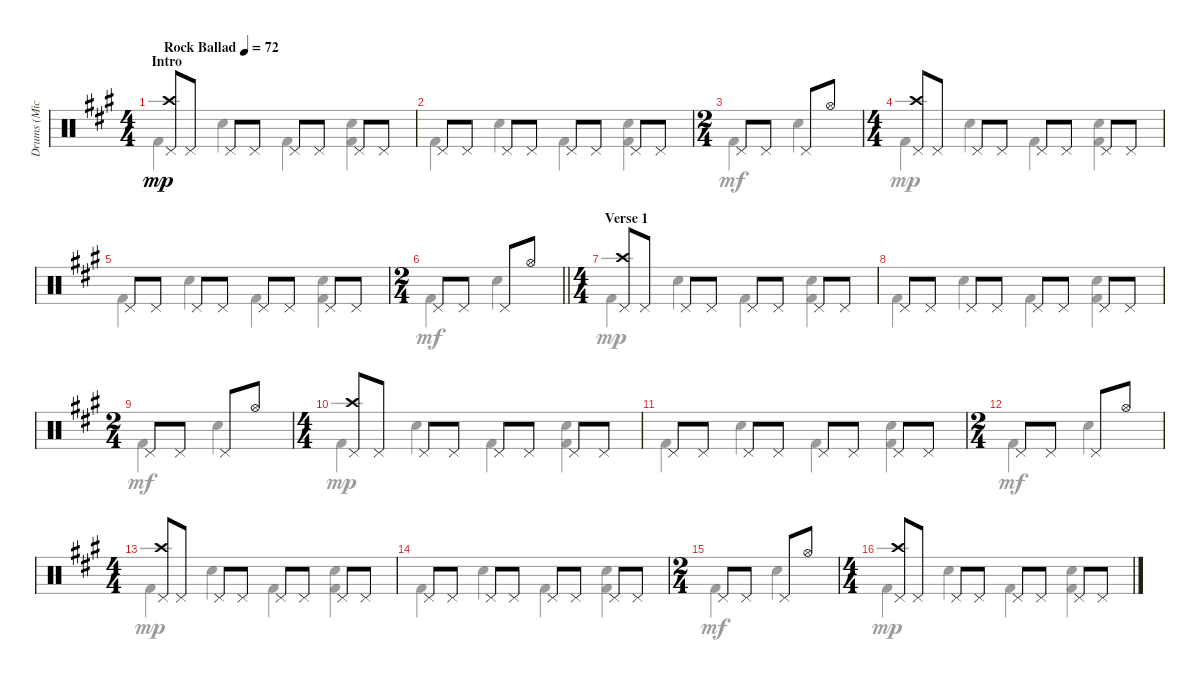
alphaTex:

\track ("Drums (Mick Fleetwood)" "Drums (Mic") {instrument percussion}
\staff {score}
\articulation defaults
\voice
\ts (4 4)
\section ("" "Intro")
\tempo (72 "Rock Ballad")
\clef neutral
\ks f#minor
("Crash high (hit)" "Pedal Hi-Hat (hit)").8{dy mp} "Pedal Hi-Hat (hit)".8 "Pedal Hi-Hat (hit)".8 "Pedal Hi-Hat (hit)".8 "Pedal Hi-Hat (hit)".8 "Pedal Hi-Hat (hit)".8 "Pedal Hi-Hat (hit)".8 "Pedal Hi-Hat (hit)".8 |
"Pedal Hi-Hat (hit)".8 "Pedal Hi-Hat (hit)".8 "Pedal Hi-Hat (hit)".8 "Pedal Hi-Hat (hit)".8 "Pedal Hi-Hat (hit)".8 "Pedal Hi-Hat (hit)".8 "Pedal Hi-Hat (hit)".8 "Pedal Hi-Hat (hit)".8 |
\ts (2 4)
"Pedal Hi-Hat (hit)".8 "Pedal Hi-Hat (hit)".8 "Pedal Hi-Hat (hit)".8 "Hi-Hat (open)".8 |
\ts (4 4)
("Crash high (hit)" "Pedal Hi-Hat (hit)").8 "Pedal Hi-Hat (hit)".8 "Pedal Hi-Hat (hit)".8 "Pedal Hi-Hat (hit)".8 "Pedal Hi-Hat (hit)".8 "Pedal Hi-Hat (hit)".8 "Pedal Hi-Hat (hit)".8 "Pedal Hi-Hat (hit)".8 |
"Pedal Hi-Hat (hit)".8 "Pedal Hi-Hat (hit)".8 "Pedal Hi-Hat (hit)".8 "Pedal Hi-Hat (hit)".8 "Pedal Hi-Hat (hit)".8 "Pedal Hi-Hat (hit)".8 "Pedal Hi-Hat (hit)".8 "Pedal Hi-Hat (hit)".8 |
\ts (2 4)
\barLineRight lightlight "Pedal Hi-Hat (hit)".8 "Pedal Hi-Hat (hit)".8 "Pedal Hi-Hat (hit)".8 "Hi-Hat (open)".8
|
\ts (4 4)
\section ("" "Verse 1")
("Crash high (hit)" "Pedal Hi-Hat (hit)").8 "Pedal Hi-Hat (hit)".8 "Pedal Hi-Hat (hit)".8 "Pedal Hi-Hat (hit)".8 "Pedal Hi-Hat (hit)".8 "Pedal Hi-Hat (hit)".8 "Pedal Hi-Hat (hit)".8 "Pedal Hi-Hat (hit)".8 |
"Pedal Hi-Hat (hit)".8 "Pedal Hi-Hat (hit)".8 "Pedal Hi-Hat (hit)".8 "Pedal Hi-Hat (hit)".8 "Pedal Hi-Hat (hit)".8 "Pedal Hi-Hat (hit)".8 "Pedal Hi-Hat (hit)".8 "Pedal Hi-Hat (hit)".8 |
\ts (2 4)
"Pedal Hi-Hat (hit)".8 "Pedal Hi-Hat (hit)".8 "Pedal Hi-Hat (hit)".8 "Hi-Hat (open)".8 |
\ts (4 4)
("Crash high (hit)" "Pedal Hi-Hat (hit)").8 "Pedal Hi-Hat (hit)".8 "Pedal Hi-Hat (hit)".8 "Pedal Hi-Hat (hit)".8 "Pedal Hi-Hat (hit)".8 "Pedal Hi-Hat (hit)".8 "Pedal Hi-Hat (hit)".8 "Pedal Hi-Hat (hit)".8 |
"Pedal Hi-Hat (hit)".8 "Pedal Hi-Hat (hit)".8 "Pedal Hi-Hat (hit)".8 "Pedal Hi-Hat (hit)".8 "Pedal Hi-Hat (hit)".8 "Pedal Hi-Hat (hit)".8 "Pedal Hi-Hat (hit)".8 "Pedal Hi-Hat (hit)".8 |
\ts (2 4)
"Pedal Hi-Hat (hit)".8 "Pedal Hi-Hat (hit)".8 "Pedal Hi-Hat (hit)".8 "Hi-Hat (open)".8 |
\ts (4 4)
("Crash high (hit)" "Pedal Hi-Hat (hit)").8 "Pedal Hi-Hat (hit)".8 "Pedal Hi-Hat (hit)".8 "Pedal Hi-Hat (hit)".8 "Pedal Hi-Hat (hit)".8 "Pedal Hi-Hat (hit)".8 "Pedal Hi-Hat (hit)".8 "Pedal Hi-Hat (hit)".8 |
"Pedal Hi-Hat (hit)".8 "Pedal Hi-Hat (hit)".8 "Pedal Hi-Hat (hit)".8 "Pedal Hi-Hat (hit)".8 "Pedal Hi-Hat (hit)".8 "Pedal Hi-Hat (hit)".8 "Pedal Hi-Hat (hit)".8 "Pedal Hi-Hat (hit)".8 |
\ts (2 4)
"Pedal Hi-Hat (hit)".8 "Pedal Hi-Hat (hit)".8 "Pedal Hi-Hat (hit)".8 "Hi-Hat (open)".8 |
\ts (4 4)
("Crash high (hit)" "Pedal Hi-Hat (hit)").8 "Pedal Hi-Hat (hit)".8 "Pedal Hi-Hat (hit)".8 "Pedal Hi-Hat (hit)".8 "Pedal Hi-Hat (hit)".8 "Pedal Hi-Hat (hit)".8 "Pedal Hi-Hat (hit)".8 "Pedal Hi-Hat (hit)".8
\voice
\clef neutral
\ottava regular
\simile none
\ks f#minor "Kick (hit) 2".4{dy mp} "Snare (hit) 2".4 "Kick (hit) 2".4
("Snare (hit) 2" "Kick (hit) 2").4 |
"Kick (hit) 2".4 "Snare (hit) 2".4 "Kick (hit) 2".4 ("Snare (hit) 2" "Kick (hit) 2").4 |
"Kick (hit) 2".4{dy mf} "Snare (hit) 2".4 |
"Kick (hit) 2".4{dy mp} "Snare (hit) 2".4 "Kick (hit) 2".4 ("Snare (hit) 2" "Kick (hit) 2").4 |
"Kick (hit) 2".4 "Snare (hit) 2".4 "Kick (hit) 2".4 ("Snare (hit) 2" "Kick (hit) 2").4 |
\barLineRight lightlight "Kick (hit) 2".4{dy mf} "Snare (hit) 2".4
|
"Kick (hit) 2".4{dy mp} "Snare (hit) 2".4 "Kick (hit) 2".4 ("Snare (hit) 2" "Kick (hit) 2").4 |
"Kick (hit) 2".4 "Snare (hit) 2".4 "Kick (hit) 2".4 ("Snare (hit) 2" "Kick (hit) 2").4 |
"Kick (hit) 2".4{dy mf} "Snare (hit) 2".4 |
"Kick (hit) 2".4{dy mp} "Snare (hit) 2".4 "Kick (hit) 2".4 ("Snare (hit) 2" "Kick (hit) 2").4 |
"Kick (hit) 2".4 "Snare (hit) 2".4 "Kick (hit) 2".4 ("Snare (hit) 2" "Kick (hit) 2").4 |
"Kick (hit) 2".4{dy mf} "Snare (hit) 2".4 |
"Kick (hit) 2".4{dy mp} "Snare (hit) 2".4 "Kick (hit) 2".4 ("Snare (hit) 2" "Kick (hit) 2").4 |
"Kick (hit) 2".4 "Snare (hit) 2".4 "Kick (hit) 2".4 ("Snare (hit) 2" "Kick (hit) 2").4 |
"Kick (hit) 2".4{dy mf} "Snare (hit) 2".4 |
"Kick (hit) 2".4{dy mp} "Snare (hit) 2".4 "Kick (hit) 2".4 ("Snare (hit) 2" "Kick (hit) 2").4
